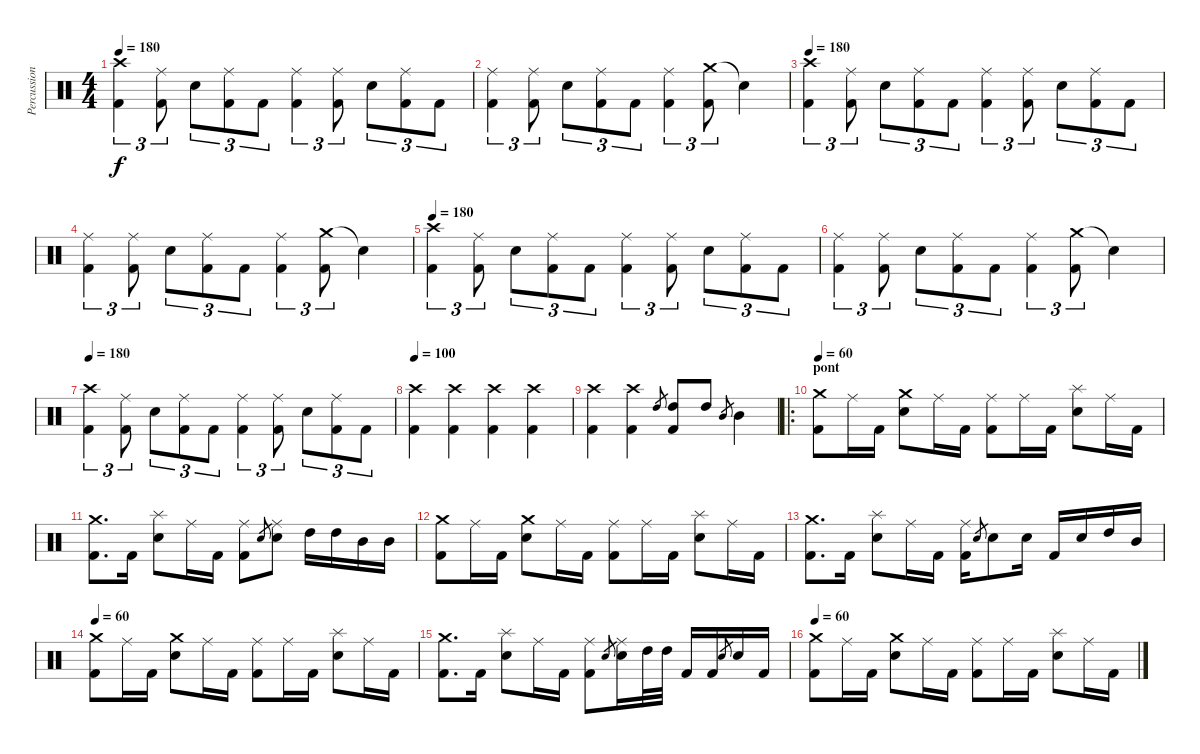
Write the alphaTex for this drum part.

\track ("Percussions" "Percussion") {instrument percussion}
\staff {score}
\articulation defaults
\ts (4 4)
\tempo 180
\clef neutral
\ks c
("Crash high (hit)" "Kick (hit) 2").4{tu (3 2) dy f} ("Ride (middle)" "Kick (hit) 2").8{tu (3 2)} "Electric Snare (hit)".8{tu (3 2)} ("Ride (middle)" "Kick (hit) 2").8{tu (3 2)} "Kick (hit) 2".8{tu (3 2)} ("Ride (middle)" "Kick (hit) 2").4{tu (3 2)} ("Ride (middle)" "Kick (hit) 2").8{tu (3 2)} "Electric Snare (hit)".8{tu (3 2)} ("Ride (middle)" "Kick (hit) 2").8{tu (3 2)} "Kick (hit) 2".8{tu (3 2)} |
("Ride (middle)" "Kick (hit) 2").4{tu (3 2)} ("Ride (middle)" "Kick (hit) 2").8{tu (3 2)} "Electric Snare (hit)".8{tu (3 2)} ("Ride (middle)" "Kick (hit) 2").8{tu (3 2)} "Kick (hit) 2".8{tu (3 2)} ("Ride (middle)" "Kick (hit) 2").4{tu (3 2)} ("Crash medium (hit)" "Kick (hit) 2").8{tu (3 2)} "Snare (hit)"{t}.4 |
\tempo 180
("Crash high (hit)" "Kick (hit) 2").4{tu (3 2)} ("Ride (middle)" "Kick (hit) 2").8{tu (3 2)} "Electric Snare (hit)".8{tu (3 2)} ("Ride (middle)" "Kick (hit) 2").8{tu (3 2)} "Kick (hit) 2".8{tu (3 2)} ("Ride (middle)" "Kick (hit) 2").4{tu (3 2)} ("Ride (middle)" "Kick (hit) 2").8{tu (3 2)} "Electric Snare (hit)".8{tu (3 2)} ("Ride (middle)" "Kick (hit) 2").8{tu (3 2)} "Kick (hit) 2".8{tu (3 2)} |
("Ride (middle)" "Kick (hit) 2").4{tu (3 2)} ("Ride (middle)" "Kick (hit) 2").8{tu (3 2)} "Electric Snare (hit)".8{tu (3 2)} ("Ride (middle)" "Kick (hit) 2").8{tu (3 2)} "Kick (hit) 2".8{tu (3 2)} ("Ride (middle)" "Kick (hit) 2").4{tu (3 2)} ("Crash medium (hit)" "Kick (hit) 2").8{tu (3 2)} "Snare (hit)"{t}.4 |
\tempo 180
("Crash high (hit)" "Kick (hit) 2").4{tu (3 2)} ("Ride (middle)" "Kick (hit) 2").8{tu (3 2)} "Electric Snare (hit)".8{tu (3 2)} ("Ride (middle)" "Kick (hit) 2").8{tu (3 2)} "Kick (hit) 2".8{tu (3 2)} ("Ride (middle)" "Kick (hit) 2").4{tu (3 2)} ("Ride (middle)" "Kick (hit) 2").8{tu (3 2)} "Electric Snare (hit)".8{tu (3 2)} ("Ride (middle)" "Kick (hit) 2").8{tu (3 2)} "Kick (hit) 2".8{tu (3 2)} |
("Ride (middle)" "Kick (hit) 2").4{tu (3 2)} ("Ride (middle)" "Kick (hit) 2").8{tu (3 2)} "Electric Snare (hit)".8{tu (3 2)} ("Ride (middle)" "Kick (hit) 2").8{tu (3 2)} "Kick (hit) 2".8{tu (3 2)} ("Ride (middle)" "Kick (hit) 2").4{tu (3 2)} ("Crash medium (hit)" "Kick (hit) 2").8{tu (3 2)} "Snare (hit)"{t}.4 |
\tempo 180
("Crash high (hit)" "Kick (hit) 2").4{tu (3 2)} ("Ride (middle)" "Kick (hit) 2").8{tu (3 2)} "Electric Snare (hit)".8{tu (3 2)} ("Ride (middle)" "Kick (hit) 2").8{tu (3 2)} "Kick (hit) 2".8{tu (3 2)} ("Ride (middle)" "Kick (hit) 2").4{tu (3 2)} ("Ride (middle)" "Kick (hit) 2").8{tu (3 2)} "Electric Snare (hit)".8{tu (3 2)} ("Ride (middle)" "Kick (hit) 2").8{tu (3 2)} "Kick (hit) 2".8{tu (3 2)} |
\tempo 100
("Crash high (hit)" "Kick (hit) 2").4 ("Crash high (hit)" "Kick (hit) 2").4 ("Crash high (hit)" "Kick (hit) 2").4 ("Crash high (hit)" "Kick (hit) 2").4 |
("Crash high (hit)" "Kick (hit) 2").4 ("Crash high (hit)" "Kick (hit) 2").4 "High Tom (hit)".8{gr} ("High Tom (hit)" "Kick (hit) 2").8 "High Tom (hit)".8 "Mid Tom (hit)".8{gr} "Mid Tom (hit)".4 |
\ro
\section ("" "pont")
\tempo 60
("Crash medium (hit)" "Kick (hit) 2").8 "Ride (middle)".16 "Kick (hit) 2".16 ("Crash medium (hit)" "Electric Snare (hit)").8 "Ride (middle)".16 "Kick (hit) 2".16 ("Ride (middle)" "Kick (hit) 2").8 "Ride (middle)".16 "Kick (hit) 2".16 ("Splash (hit)" "Electric Snare (hit)").8 "Ride (middle)".16 "Kick (hit) 2".16 |
("Crash medium (hit)" "Kick (hit) 2").8{d} "Kick (hit) 2".16 ("Splash (hit)" "Electric Snare (hit)").8 "Ride (middle)".16 "Kick (hit) 2".16 ("Ride (middle)" "Kick (hit) 2").8 "Electric Snare (hit)".8{gr} ("Ride (middle)" "Electric Snare (hit)").8 "High Tom (hit)".16 "High Tom (hit)".16 "Mid Tom (hit)".16 "Mid Tom (hit)".16 |
("Crash medium (hit)" "Kick (hit) 2").8 "Ride (middle)".16 "Kick (hit) 2".16 ("Crash medium (hit)" "Electric Snare (hit)").8 "Ride (middle)".16 "Kick (hit) 2".16 ("Ride (middle)" "Kick (hit) 2").8 "Ride (middle)".16 "Kick (hit) 2".16 ("Splash (hit)" "Electric Snare (hit)").8 "Ride (middle)".16 "Kick (hit) 2".16 |
("Crash medium (hit)" "Kick (hit) 2").8{d} "Kick (hit) 2".16 ("Splash (hit)" "Electric Snare (hit)").8 "Ride (middle)".16 "Kick (hit) 2".16 ("Ride (middle)" "Kick (hit) 2").16 "Electric Snare (hit)".8{gr} "Electric Snare (hit)".8 "Electric Snare (hit)".16 "Kick (hit) 2".16 "Electric Snare (hit)".16 "High Tom (hit)".16 "Mid Tom (hit)".16 |
\tempo 60
("Crash medium (hit)" "Kick (hit) 2").8 "Ride (middle)".16 "Kick (hit) 2".16 ("Crash medium (hit)" "Electric Snare (hit)").8 "Ride (middle)".16 "Kick (hit) 2".16 ("Ride (middle)" "Kick (hit) 2").8 "Ride (middle)".16 "Kick (hit) 2".16 ("Splash (hit)" "Electric Snare (hit)").8 "Ride (middle)".16 "Kick (hit) 2".16 |
("Crash medium (hit)" "Kick (hit) 2").8{d} "Kick (hit) 2".16 ("Splash (hit)" "Electric Snare (hit)").8 "Ride (middle)".16 "Kick (hit) 2".16 ("Ride (middle)" "Kick (hit) 2").8 "Electric Snare (hit)".8{gr} ("Ride (middle)" "Electric Snare (hit)").16 "High Tom (hit)".32 "High Tom (hit)".32 "Kick (hit) 2".16 "Kick (hit) 2".16 "Electric Snare (hit)".8{gr} "Electric Snare (hit)".16 "Kick (hit) 2".16 |
\tempo 60
("Crash medium (hit)" "Kick (hit) 2").8 "Ride (middle)".16 "Kick (hit) 2".16 ("Crash medium (hit)" "Electric Snare (hit)").8 "Ride (middle)".16 "Kick (hit) 2".16 ("Ride (middle)" "Kick (hit) 2").8 "Ride (middle)".16 "Kick (hit) 2".16 ("Splash (hit)" "Electric Snare (hit)").8 "Ride (middle)".16 "Kick (hit) 2".16
